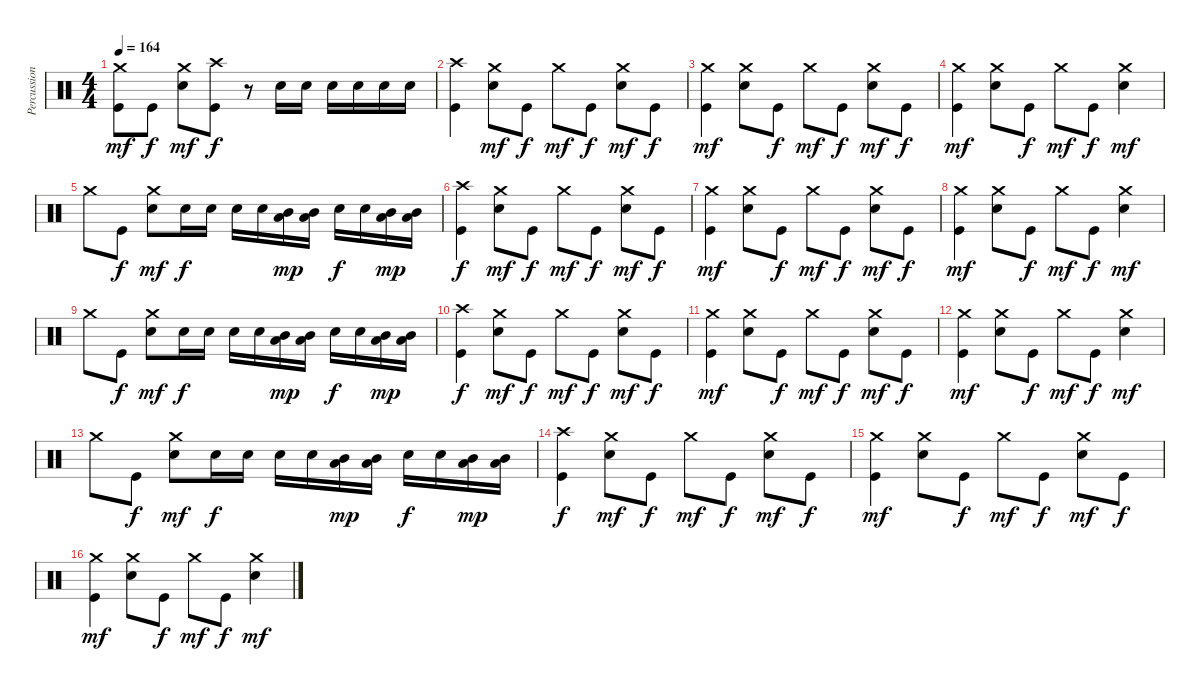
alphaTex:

\track ("Percussion" "Percussion") {instrument percussion}
\staff {score}
\articulation defaults
\ts (4 4)
\tempo 164
\clef neutral
\ks c
("Kick (hit)" "Crash medium (hit)").8{dy mf} "Kick (hit)".8{dy f} ("Electric Snare (hit)" "Crash medium (hit)").8{dy mf} ("Kick (hit)" "Crash high (hit)").8{dy f} r.8 "Electric Snare (hit)".16 "Electric Snare (hit)".16 "Electric Snare (hit)".16 "Electric Snare (hit)".16 "Electric Snare (hit)".16 "Electric Snare (hit)".16 |
("Kick (hit)" "Crash high (hit)").4 ("Electric Snare (hit)" "Crash medium (hit)").8{dy mf} "Kick (hit)".8{dy f} "Crash medium (hit)".8{dy mf} "Kick (hit)".8{dy f} ("Electric Snare (hit)" "Crash medium (hit)").8{dy mf} "Kick (hit)".8{dy f} |
("Kick (hit)" "Crash medium (hit)").4{dy mf} ("Electric Snare (hit)" "Crash medium (hit)").8 "Kick (hit)".8{dy f} "Crash medium (hit)".8{dy mf} "Kick (hit)".8{dy f} ("Electric Snare (hit)" "Crash medium (hit)").8{dy mf} "Kick (hit)".8{dy f} |
("Kick (hit)" "Crash medium (hit)").4{dy mf} ("Electric Snare (hit)" "Crash medium (hit)").8 "Kick (hit)".8{dy f} "Crash medium (hit)".8{dy mf} "Kick (hit)".8{dy f} ("Electric Snare (hit)" "Crash medium (hit)").4{dy mf} |
"Crash medium (hit)".8 "Kick (hit)".8{dy f} ("Electric Snare (hit)" "Crash medium (hit)").8{dy mf} "Electric Snare (hit)".16{dy f} "Electric Snare (hit)".16 "Electric Snare (hit)".16 "Electric Snare (hit)".16 ("Mid Tom (hit)" "Low Tom (hit)").16{dy mp} ("Mid Tom (hit)" "Low Tom (hit)").16 "Electric Snare (hit)".16{dy f} "Electric Snare (hit)".16 ("Mid Tom (hit)" "Low Tom (hit)").16{dy mp} ("Mid Tom (hit)" "Low Tom (hit)").16 |
("Kick (hit)" "Crash high (hit)").4{dy f} ("Electric Snare (hit)" "Crash medium (hit)").8{dy mf} "Kick (hit)".8{dy f} "Crash medium (hit)".8{dy mf} "Kick (hit)".8{dy f} ("Electric Snare (hit)" "Crash medium (hit)").8{dy mf} "Kick (hit)".8{dy f} |
("Kick (hit)" "Crash medium (hit)").4{dy mf} ("Electric Snare (hit)" "Crash medium (hit)").8 "Kick (hit)".8{dy f} "Crash medium (hit)".8{dy mf} "Kick (hit)".8{dy f} ("Electric Snare (hit)" "Crash medium (hit)").8{dy mf} "Kick (hit)".8{dy f} |
("Kick (hit)" "Crash medium (hit)").4{dy mf} ("Electric Snare (hit)" "Crash medium (hit)").8 "Kick (hit)".8{dy f} "Crash medium (hit)".8{dy mf} "Kick (hit)".8{dy f} ("Electric Snare (hit)" "Crash medium (hit)").4{dy mf} |
"Crash medium (hit)".8 "Kick (hit)".8{dy f} ("Electric Snare (hit)" "Crash medium (hit)").8{dy mf} "Electric Snare (hit)".16{dy f} "Electric Snare (hit)".16 "Electric Snare (hit)".16 "Electric Snare (hit)".16 ("Mid Tom (hit)" "Low Tom (hit)").16{dy mp} ("Mid Tom (hit)" "Low Tom (hit)").16 "Electric Snare (hit)".16{dy f} "Electric Snare (hit)".16 ("Mid Tom (hit)" "Low Tom (hit)").16{dy mp} ("Mid Tom (hit)" "Low Tom (hit)").16 |
("Kick (hit)" "Crash high (hit)").4{dy f} ("Electric Snare (hit)" "Crash medium (hit)").8{dy mf} "Kick (hit)".8{dy f} "Crash medium (hit)".8{dy mf} "Kick (hit)".8{dy f} ("Electric Snare (hit)" "Crash medium (hit)").8{dy mf} "Kick (hit)".8{dy f} |
("Kick (hit)" "Crash medium (hit)").4{dy mf} ("Electric Snare (hit)" "Crash medium (hit)").8 "Kick (hit)".8{dy f} "Crash medium (hit)".8{dy mf} "Kick (hit)".8{dy f} ("Electric Snare (hit)" "Crash medium (hit)").8{dy mf} "Kick (hit)".8{dy f} |
("Kick (hit)" "Crash medium (hit)").4{dy mf} ("Electric Snare (hit)" "Crash medium (hit)").8 "Kick (hit)".8{dy f} "Crash medium (hit)".8{dy mf} "Kick (hit)".8{dy f} ("Electric Snare (hit)" "Crash medium (hit)").4{dy mf} |
"Crash medium (hit)".8 "Kick (hit)".8{dy f} ("Electric Snare (hit)" "Crash medium (hit)").8{dy mf} "Electric Snare (hit)".16{dy f} "Electric Snare (hit)".16 "Electric Snare (hit)".16 "Electric Snare (hit)".16 ("Mid Tom (hit)" "Low Tom (hit)").16{dy mp} ("Mid Tom (hit)" "Low Tom (hit)").16 "Electric Snare (hit)".16{dy f} "Electric Snare (hit)".16 ("Mid Tom (hit)" "Low Tom (hit)").16{dy mp} ("Mid Tom (hit)" "Low Tom (hit)").16 |
("Kick (hit)" "Crash high (hit)").4{dy f} ("Electric Snare (hit)" "Crash medium (hit)").8{dy mf} "Kick (hit)".8{dy f} "Crash medium (hit)".8{dy mf} "Kick (hit)".8{dy f} ("Electric Snare (hit)" "Crash medium (hit)").8{dy mf} "Kick (hit)".8{dy f} |
("Kick (hit)" "Crash medium (hit)").4{dy mf} ("Electric Snare (hit)" "Crash medium (hit)").8 "Kick (hit)".8{dy f} "Crash medium (hit)".8{dy mf} "Kick (hit)".8{dy f} ("Electric Snare (hit)" "Crash medium (hit)").8{dy mf} "Kick (hit)".8{dy f} |
("Kick (hit)" "Crash medium (hit)").4{dy mf} ("Electric Snare (hit)" "Crash medium (hit)").8 "Kick (hit)".8{dy f} "Crash medium (hit)".8{dy mf} "Kick (hit)".8{dy f} ("Electric Snare (hit)" "Crash medium (hit)").4{dy mf}
